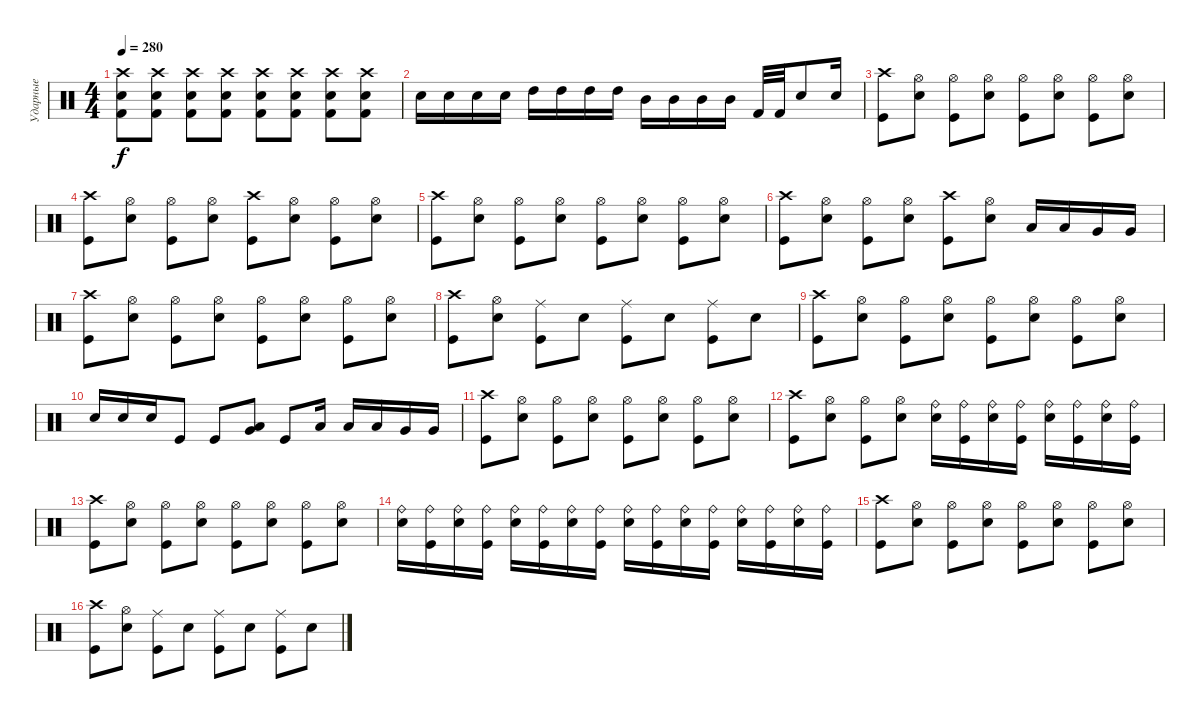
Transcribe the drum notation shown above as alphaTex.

\track ("Ударные" "Ударные") {instrument percussion}
\staff {score}
\articulation defaults
\ts (4 4)
\tempo 280
\clef neutral
\ks c
("Crash high (hit)" "Electric Snare (hit)" "Kick (hit) 2").8{dy f} ("Crash high (hit)" "Electric Snare (hit)" "Kick (hit) 2").8 ("Crash high (hit)" "Electric Snare (hit)" "Kick (hit) 2").8 ("Crash high (hit)" "Electric Snare (hit)" "Kick (hit) 2").8 ("Crash high (hit)" "Electric Snare (hit)" "Kick (hit) 2").8 ("Crash high (hit)" "Electric Snare (hit)" "Kick (hit) 2").8 ("Crash high (hit)" "Electric Snare (hit)" "Kick (hit) 2").8 ("Crash high (hit)" "Electric Snare (hit)" "Kick (hit) 2").8 |
"Electric Snare (hit)".16 "Electric Snare (hit)".16 "Electric Snare (hit)".16 "Electric Snare (hit)".16 "High Tom (hit)".16 "High Tom (hit)".16 "High Tom (hit)".16 "High Tom (hit)".16 "Mid Tom (hit)".16 "Mid Tom (hit)".16 "Mid Tom (hit)".16 "Mid Tom (hit)".16 "Kick (hit) 2".32 "Kick (hit) 2".32 "Electric Snare (hit)".8 "Electric Snare (hit)".16 |
("Crash high (hit)" "Kick (hit)").8 ("Hi-Hat (open)" "Snare (hit) 2").8 ("Hi-Hat (open)" "Kick (hit)").8 ("Hi-Hat (open)" "Snare (hit) 2").8 ("Hi-Hat (open)" "Kick (hit)").8 ("Hi-Hat (open)" "Snare (hit) 2").8 ("Hi-Hat (open)" "Kick (hit)").8 ("Hi-Hat (open)" "Snare (hit) 2").8 |
("Crash high (hit)" "Kick (hit)").8 ("Hi-Hat (open)" "Snare (hit) 2").8 ("Hi-Hat (open)" "Kick (hit)").8 ("Hi-Hat (open)" "Snare (hit) 2").8 ("Crash high (hit)" "Kick (hit)").8 ("Hi-Hat (open)" "Snare (hit) 2").8 ("Hi-Hat (open)" "Kick (hit)").8 ("Hi-Hat (open)" "Snare (hit) 2").8 |
("Crash high (hit)" "Kick (hit)").8 ("Hi-Hat (open)" "Snare (hit) 2").8 ("Hi-Hat (open)" "Kick (hit)").8 ("Hi-Hat (open)" "Snare (hit) 2").8 ("Hi-Hat (open)" "Kick (hit)").8 ("Hi-Hat (open)" "Snare (hit) 2").8 ("Hi-Hat (open)" "Kick (hit)").8 ("Hi-Hat (open)" "Snare (hit) 2").8 |
("Crash high (hit)" "Kick (hit)").8 ("Hi-Hat (open)" "Snare (hit) 2").8 ("Hi-Hat (open)" "Kick (hit)").8 ("Hi-Hat (open)" "Snare (hit) 2").8 ("Crash high (hit)" "Kick (hit)").8 ("Hi-Hat (open)" "Snare (hit) 2").8 "Low Tom (hit)".16 "Low Tom (hit)".16 "Very Low Tom (hit)".16 "Very Low Tom (hit)".16 |
("Crash high (hit)" "Kick (hit)").8 ("Hi-Hat (open)" "Snare (hit) 2").8 ("Hi-Hat (open)" "Kick (hit)").8 ("Hi-Hat (open)" "Snare (hit) 2").8 ("Hi-Hat (open)" "Kick (hit)").8 ("Hi-Hat (open)" "Snare (hit) 2").8 ("Hi-Hat (open)" "Kick (hit)").8 ("Hi-Hat (open)" "Snare (hit) 2").8 |
("Crash high (hit)" "Kick (hit)").8 ("Hi-Hat (open)" "Snare (hit) 2").8 ("Ride (middle)" "Kick (hit)").8 "Snare (hit) 2".8 ("Ride (middle)" "Kick (hit)").8 "Snare (hit) 2".8 ("Ride (middle)" "Kick (hit)").8 "Snare (hit) 2".8 |
("Crash high (hit)" "Kick (hit)").8 ("Hi-Hat (open)" "Snare (hit) 2").8 ("Hi-Hat (open)" "Kick (hit)").8 ("Hi-Hat (open)" "Snare (hit) 2").8 ("Hi-Hat (open)" "Kick (hit)").8 ("Hi-Hat (open)" "Snare (hit) 2").8 ("Hi-Hat (open)" "Kick (hit)").8 ("Hi-Hat (open)" "Snare (hit) 2").8 |
"Snare (hit) 2".16 "Snare (hit) 2".16 "Snare (hit) 2".16 "Kick (hit)".8 "Kick (hit)".8 ("Low Floor Tom (hit)" "Very Low Tom (hit)").8 "Kick (hit)".8 "Low Tom (hit)".16 "Low Tom (hit)".16 "Low Tom (hit)".16 "Very Low Tom (hit)".16 "Very Low Tom (hit)".16 |
("Crash high (hit)" "Kick (hit)").8 ("Hi-Hat (open)" "Snare (hit) 2").8 ("Hi-Hat (open)" "Kick (hit)").8 ("Hi-Hat (open)" "Snare (hit) 2").8 ("Hi-Hat (open)" "Kick (hit)").8 ("Hi-Hat (open)" "Snare (hit) 2").8 ("Hi-Hat (open)" "Kick (hit)").8 ("Hi-Hat (open)" "Snare (hit) 2").8 |
("Crash high (hit)" "Kick (hit)").8 ("Hi-Hat (open)" "Snare (hit) 2").8 ("Hi-Hat (open)" "Kick (hit)").8 ("Hi-Hat (open)" "Snare (hit) 2").8 ("Ride (bell)" "Snare (hit) 2").16 ("Ride (bell)" "Kick (hit)").16 ("Ride (bell)" "Snare (hit) 2").16 ("Ride (bell)" "Kick (hit)").16 ("Ride (bell)" "Snare (hit) 2").16 ("Ride (bell)" "Kick (hit)").16 ("Ride (bell)" "Snare (hit) 2").16 ("Ride (bell)" "Kick (hit)").16 |
("Crash high (hit)" "Kick (hit)").8 ("Hi-Hat (open)" "Snare (hit) 2").8 ("Hi-Hat (open)" "Kick (hit)").8 ("Hi-Hat (open)" "Snare (hit) 2").8 ("Hi-Hat (open)" "Kick (hit)").8 ("Hi-Hat (open)" "Snare (hit) 2").8 ("Hi-Hat (open)" "Kick (hit)").8 ("Hi-Hat (open)" "Snare (hit) 2").8 |
("Ride (bell)" "Snare (hit) 2").16 ("Ride (bell)" "Kick (hit)").16 ("Ride (bell)" "Snare (hit) 2").16 ("Ride (bell)" "Kick (hit)").16 ("Ride (bell)" "Snare (hit) 2").16 ("Ride (bell)" "Kick (hit)").16 ("Ride (bell)" "Snare (hit) 2").16 ("Ride (bell)" "Kick (hit)").16 ("Ride (bell)" "Snare (hit) 2").16 ("Ride (bell)" "Kick (hit)").16 ("Ride (bell)" "Snare (hit) 2").16 ("Ride (bell)" "Kick (hit)").16 ("Ride (bell)" "Snare (hit) 2").16 ("Ride (bell)" "Kick (hit)").16 ("Ride (bell)" "Snare (hit) 2").16 ("Ride (bell)" "Kick (hit)").16 |
("Crash high (hit)" "Kick (hit)").8 ("Hi-Hat (open)" "Snare (hit) 2").8 ("Hi-Hat (open)" "Kick (hit)").8 ("Hi-Hat (open)" "Snare (hit) 2").8 ("Hi-Hat (open)" "Kick (hit)").8 ("Hi-Hat (open)" "Snare (hit) 2").8 ("Hi-Hat (open)" "Kick (hit)").8 ("Hi-Hat (open)" "Snare (hit) 2").8 |
("Crash high (hit)" "Kick (hit)").8 ("Hi-Hat (open)" "Snare (hit) 2").8 ("Ride (middle)" "Kick (hit)").8 "Snare (hit) 2".8 ("Ride (middle)" "Kick (hit)").8 "Snare (hit) 2".8 ("Ride (middle)" "Kick (hit)").8 "Snare (hit) 2".8
